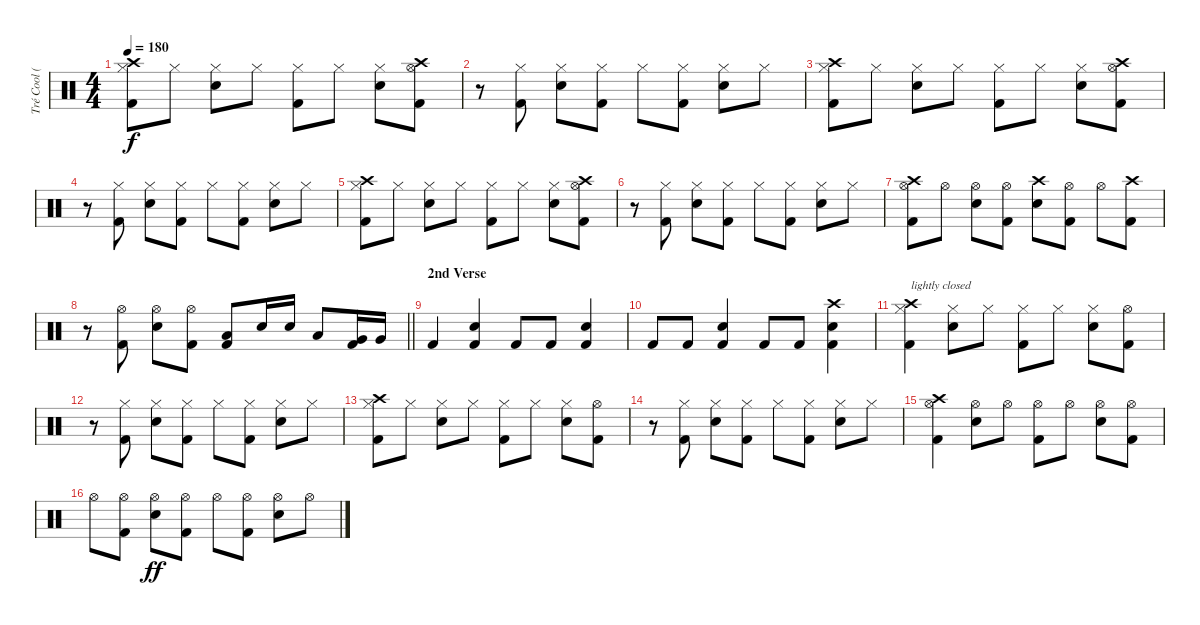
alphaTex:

\track ("Tré Cool (Drums)" "Tré Cool (") {instrument percussion}
\staff {score}
\articulation defaults
\ts (4 4)
\tempo 180
\clef neutral
\ks c
("Crash high (hit)" "Hi-Hat (closed)" "Kick (hit) 2").8{dy f} "Hi-Hat (closed)".8 ("Hi-Hat (closed)" "Electric Snare (hit)").8 "Hi-Hat (closed)".8 ("Hi-Hat (closed)" "Kick (hit) 2").8 "Hi-Hat (closed)".8 ("Hi-Hat (closed)" "Electric Snare (hit)").8 ("Crash high (hit)" "Hi-Hat (open)" "Kick (hit) 2").8 |
r.8 ("Hi-Hat (closed)" "Kick (hit) 2").8 ("Hi-Hat (closed)" "Electric Snare (hit)").8 ("Hi-Hat (closed)" "Kick (hit) 2").8 "Hi-Hat (closed)".8 ("Hi-Hat (closed)" "Kick (hit) 2").8 ("Hi-Hat (closed)" "Electric Snare (hit)").8 "Hi-Hat (closed)".8 |
("Crash high (hit)" "Hi-Hat (closed)" "Kick (hit) 2").8 "Hi-Hat (closed)".8 ("Hi-Hat (closed)" "Electric Snare (hit)").8 "Hi-Hat (closed)".8 ("Hi-Hat (closed)" "Kick (hit) 2").8 "Hi-Hat (closed)".8 ("Hi-Hat (closed)" "Electric Snare (hit)").8 ("Crash high (hit)" "Hi-Hat (open)" "Kick (hit) 2").8 |
r.8 ("Hi-Hat (closed)" "Kick (hit) 2").8 ("Hi-Hat (closed)" "Electric Snare (hit)").8 ("Hi-Hat (closed)" "Kick (hit) 2").8 "Hi-Hat (closed)".8 ("Hi-Hat (closed)" "Kick (hit) 2").8 ("Hi-Hat (closed)" "Electric Snare (hit)").8 "Hi-Hat (closed)".8 |
("Crash high (hit)" "Hi-Hat (closed)" "Kick (hit) 2").8 "Hi-Hat (closed)".8 ("Hi-Hat (closed)" "Electric Snare (hit)").8 "Hi-Hat (closed)".8 ("Hi-Hat (closed)" "Kick (hit) 2").8 "Hi-Hat (closed)".8 ("Hi-Hat (closed)" "Electric Snare (hit)").8 ("Crash high (hit)" "Hi-Hat (open)" "Kick (hit) 2").8 |
r.8 ("Hi-Hat (closed)" "Kick (hit) 2").8 ("Hi-Hat (closed)" "Electric Snare (hit)").8 ("Hi-Hat (closed)" "Kick (hit) 2").8 "Hi-Hat (closed)".8 ("Hi-Hat (closed)" "Kick (hit) 2").8 ("Hi-Hat (closed)" "Electric Snare (hit)").8 "Hi-Hat (closed)".8 |
("Crash high (hit)" "Hi-Hat (open)" "Kick (hit) 2").8 "Hi-Hat (open)".8 ("Hi-Hat (open)" "Electric Snare (hit)").8 ("Hi-Hat (open)" "Kick (hit) 2").8 ("Crash high (hit)" "Electric Snare (hit)").8 ("Hi-Hat (open)" "Kick (hit) 2").8 "Hi-Hat (open)".8 ("Crash high (hit)" "Kick (hit) 2").8 |
\barLineRight lightlight
r.8 ("Hi-Hat (open)" "Kick (hit) 2").8 ("Hi-Hat (open)" "Electric Snare (hit)").8 ("Hi-Hat (open)" "Kick (hit) 2").8 ("Low Tom (hit)" "Kick (hit) 2").8 "Electric Snare (hit)".16 "Electric Snare (hit)".16 "Low Tom (hit)".8 ("Very Low Tom (hit)" "Kick (hit) 2").16 "Very Low Tom (hit)".16 |
\section ("" "2nd Verse")
"Kick (hit) 2".4 ("Electric Snare (hit)" "Kick (hit) 2").4 "Kick (hit) 2".8 "Kick (hit) 2".8 ("Electric Snare (hit)" "Kick (hit) 2").4 |
"Kick (hit) 2".8 "Kick (hit) 2".8 ("Electric Snare (hit)" "Kick (hit) 2").4 "Kick (hit) 2".8 "Kick (hit) 2".8 ("Crash high (hit)" "Electric Snare (hit)" "Kick (hit) 2").4 |
("Crash high (hit)" "Hi-Hat (closed)" "Kick (hit) 2").4{txt "lightly closed"} ("Hi-Hat (closed)" "Electric Snare (hit)").8 "Hi-Hat (closed)".8 ("Hi-Hat (closed)" "Kick (hit) 2").8 "Hi-Hat (closed)".8 ("Hi-Hat (closed)" "Electric Snare (hit)").8 ("Hi-Hat (open)" "Kick (hit) 2").8 |
r.8 ("Hi-Hat (closed)" "Kick (hit) 2").8 ("Hi-Hat (closed)" "Electric Snare (hit)").8 ("Hi-Hat (closed)" "Kick (hit) 2").8 "Hi-Hat (closed)".8 ("Hi-Hat (closed)" "Kick (hit) 2").8 ("Hi-Hat (closed)" "Electric Snare (hit)").8 "Hi-Hat (closed)".8 |
("Crash high (hit)" "Hi-Hat (closed)" "Kick (hit) 2").8 "Hi-Hat (closed)".8 ("Hi-Hat (closed)" "Electric Snare (hit)").8 "Hi-Hat (closed)".8 ("Hi-Hat (closed)" "Kick (hit) 2").8 "Hi-Hat (closed)".8 ("Hi-Hat (closed)" "Electric Snare (hit)").8 ("Hi-Hat (open)" "Kick (hit) 2").8 |
r.8 ("Hi-Hat (closed)" "Kick (hit) 2").8 ("Hi-Hat (closed)" "Electric Snare (hit)").8 ("Hi-Hat (closed)" "Kick (hit) 2").8 "Hi-Hat (closed)".8 ("Hi-Hat (closed)" "Kick (hit) 2").8 ("Hi-Hat (closed)" "Electric Snare (hit)").8 "Hi-Hat (closed)".8 |
("Crash high (hit)" "Hi-Hat (open)" "Kick (hit) 2").4 ("Hi-Hat (open)" "Electric Snare (hit)").8 "Hi-Hat (open)".8 ("Hi-Hat (open)" "Kick (hit) 2").8 "Hi-Hat (open)".8 ("Hi-Hat (open)" "Electric Snare (hit)").8 ("Hi-Hat (open)" "Kick (hit) 2").8 |
"Hi-Hat (open)".8 ("Hi-Hat (open)" "Kick (hit) 2").8 ("Hi-Hat (open)" "Electric Snare (hit)").8{dy ff} ("Hi-Hat (open)" "Kick (hit) 2").8 "Hi-Hat (open)".8 ("Hi-Hat (open)" "Kick (hit) 2").8 ("Hi-Hat (open)" "Electric Snare (hit)").8 "Hi-Hat (open)".8
